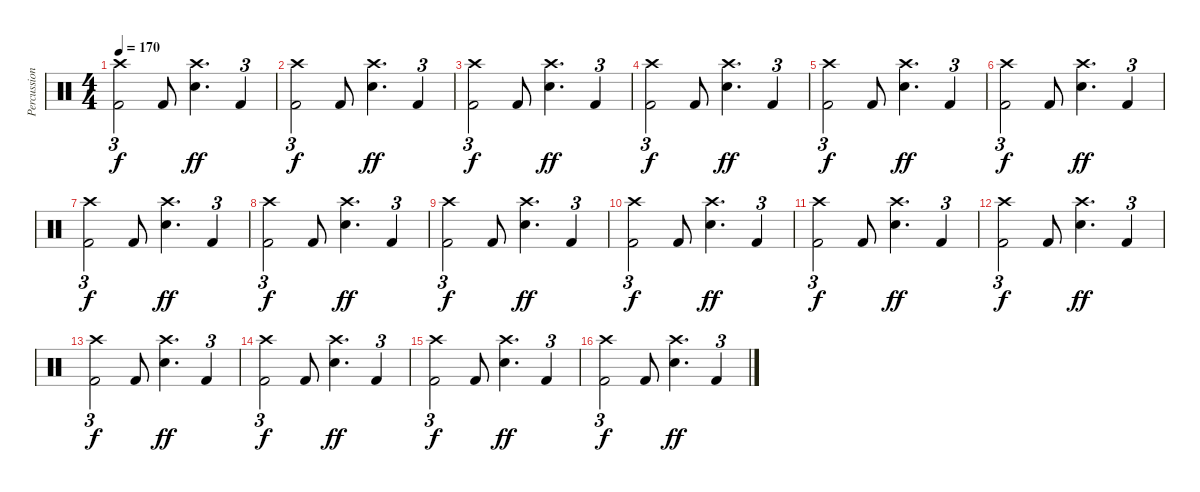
\track ("Percussion" "Percussion") {instrument percussion bank 127}
\staff {score}
\articulation defaults
\ts (4 4)
\tempo 170
\clef neutral
\ks c
("Crash high (hit)" "Kick (hit) 2").2{tu (3 2) dy f} "Kick (hit) 2".8 ("Crash high (hit)" "Snare (hit) 2").4{d dy ff} "Kick (hit) 2".4{tu (3 2)} |
("Crash high (hit)" "Kick (hit) 2").2{tu (3 2) dy f} "Kick (hit) 2".8 ("Crash high (hit)" "Snare (hit) 2").4{d dy ff} "Kick (hit) 2".4{tu (3 2)} |
("Crash high (hit)" "Kick (hit) 2").2{tu (3 2) dy f} "Kick (hit) 2".8 ("Crash high (hit)" "Snare (hit) 2").4{d dy ff} "Kick (hit) 2".4{tu (3 2)} |
("Crash high (hit)" "Kick (hit) 2").2{tu (3 2) dy f} "Kick (hit) 2".8 ("Crash high (hit)" "Snare (hit) 2").4{d dy ff} "Kick (hit) 2".4{tu (3 2)} |
("Crash high (hit)" "Kick (hit) 2").2{tu (3 2) dy f} "Kick (hit) 2".8 ("Crash high (hit)" "Snare (hit) 2").4{d dy ff} "Kick (hit) 2".4{tu (3 2)} |
("Crash high (hit)" "Kick (hit) 2").2{tu (3 2) dy f} "Kick (hit) 2".8 ("Crash high (hit)" "Snare (hit) 2").4{d dy ff} "Kick (hit) 2".4{tu (3 2)} |
("Crash high (hit)" "Kick (hit) 2").2{tu (3 2) dy f} "Kick (hit) 2".8 ("Crash high (hit)" "Snare (hit) 2").4{d dy ff} "Kick (hit) 2".4{tu (3 2)} |
("Crash high (hit)" "Kick (hit) 2").2{tu (3 2) dy f} "Kick (hit) 2".8 ("Crash high (hit)" "Snare (hit) 2").4{d dy ff} "Kick (hit) 2".4{tu (3 2)} |
("Crash high (hit)" "Kick (hit) 2").2{tu (3 2) dy f} "Kick (hit) 2".8 ("Crash high (hit)" "Snare (hit) 2").4{d dy ff} "Kick (hit) 2".4{tu (3 2)} |
("Crash high (hit)" "Kick (hit) 2").2{tu (3 2) dy f} "Kick (hit) 2".8 ("Crash high (hit)" "Snare (hit) 2").4{d dy ff} "Kick (hit) 2".4{tu (3 2)} |
("Crash high (hit)" "Kick (hit) 2").2{tu (3 2) dy f} "Kick (hit) 2".8 ("Crash high (hit)" "Snare (hit) 2").4{d dy ff} "Kick (hit) 2".4{tu (3 2)} |
("Crash high (hit)" "Kick (hit) 2").2{tu (3 2) dy f} "Kick (hit) 2".8 ("Crash high (hit)" "Snare (hit) 2").4{d dy ff} "Kick (hit) 2".4{tu (3 2)} |
("Crash high (hit)" "Kick (hit) 2").2{tu (3 2) dy f} "Kick (hit) 2".8 ("Crash high (hit)" "Snare (hit) 2").4{d dy ff} "Kick (hit) 2".4{tu (3 2)} |
("Crash high (hit)" "Kick (hit) 2").2{tu (3 2) dy f} "Kick (hit) 2".8 ("Crash high (hit)" "Snare (hit) 2").4{d dy ff} "Kick (hit) 2".4{tu (3 2)} |
("Crash high (hit)" "Kick (hit) 2").2{tu (3 2) dy f} "Kick (hit) 2".8 ("Crash high (hit)" "Snare (hit) 2").4{d dy ff} "Kick (hit) 2".4{tu (3 2)} |
("Crash high (hit)" "Kick (hit) 2").2{tu (3 2) dy f} "Kick (hit) 2".8 ("Crash high (hit)" "Snare (hit) 2").4{d dy ff} "Kick (hit) 2".4{tu (3 2)}
